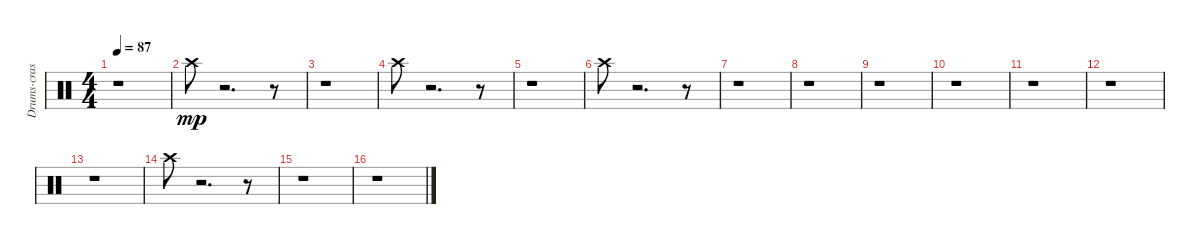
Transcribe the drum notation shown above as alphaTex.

\track ("Drums-crash cymbal 1" "Drums-cras") {instrument percussion}
\staff {score}
\articulation defaults
\ts (4 4)
\tempo 87
\clef neutral
\ks c
r.1{dy p} |
"Crash high (hit)".8{dy mp} r.2{d} r.8 |
r.1 |
"Crash high (hit)".8 r.2{d} r.8 |
r.1 |
"Crash high (hit)".8 r.2{d} r.8 |
r.1 |
r.1 |
r.1 |
r.1 |
r.1 |
r.1 |
r.1 |
"Crash high (hit)".8 r.2{d} r.8 |
r.1 |
r.1
